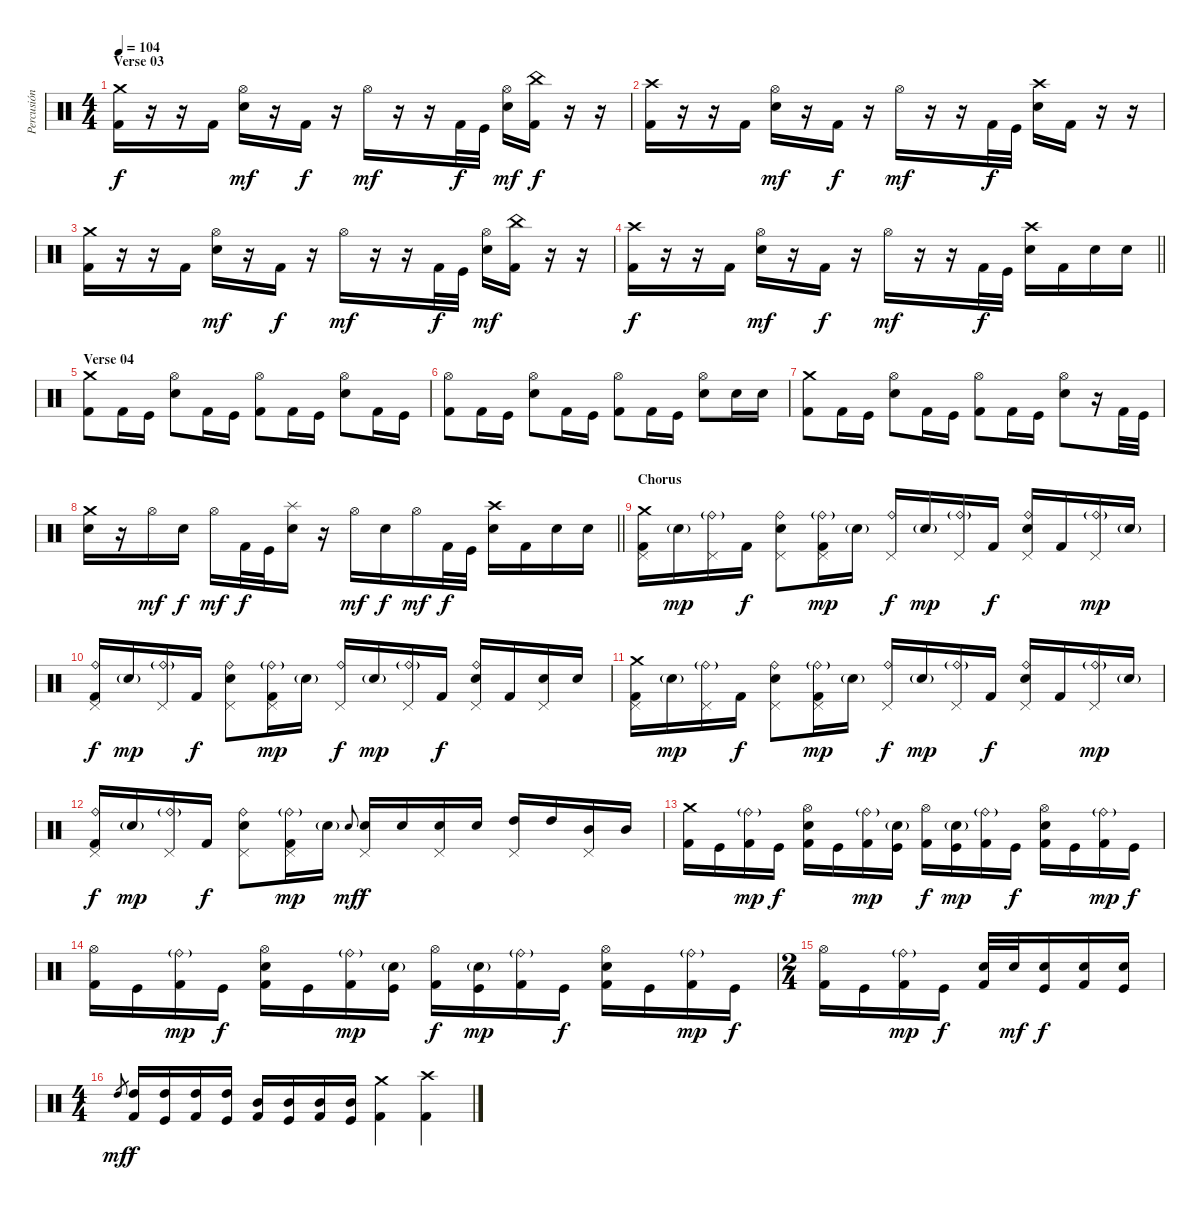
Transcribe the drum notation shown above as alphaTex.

\track ("Percusión" "Percusión") {instrument percussion}
\staff {score}
\articulation defaults
\ts (4 4)
\section ("" "Verse 03")
\tempo 104
\clef neutral
\ks c
("Crash medium (hit)" "Kick (hit) 2").16{dy f} r.16 r.16 "Kick (hit) 2".16 ("Hi-Hat (open)" "Snare (hit) 2").16{dy mf} r.16 "Kick (hit) 2".16{dy f} r.16 "Hi-Hat (open)".16{dy mf} r.16 r.16 "Kick (hit) 2".32{dy f} "Kick (hit)".32 ("Hi-Hat (open)" "Snare (hit) 2").16{dy mf} ("China (hit)" "Kick (hit) 2").16{dy f} r.16 r.16 |
("Crash high (hit)" "Kick (hit) 2").16 r.16 r.16 "Kick (hit) 2".16 ("Hi-Hat (open)" "Snare (hit) 2").16{dy mf} r.16 "Kick (hit) 2".16{dy f} r.16 "Hi-Hat (open)".16{dy mf} r.16 r.16 "Kick (hit) 2".32{dy f} "Kick (hit)".32 ("Crash high (hit)" "Snare (hit) 2").16 "Kick (hit) 2".16 r.16 r.16 |
("Crash medium (hit)" "Kick (hit) 2").16 r.16 r.16 "Kick (hit) 2".16 ("Hi-Hat (open)" "Snare (hit) 2").16{dy mf} r.16 "Kick (hit) 2".16{dy f} r.16 "Hi-Hat (open)".16{dy mf} r.16 r.16 "Kick (hit) 2".32{dy f} "Kick (hit)".32 ("Hi-Hat (open)" "Snare (hit) 2").16{dy mf} ("China (hit)" "Kick (hit) 2").16 r.16 r.16 |
\barLineRight lightlight
("Crash high (hit)" "Kick (hit) 2").16{dy f} r.16 r.16 "Kick (hit) 2".16 ("Hi-Hat (open)" "Snare (hit) 2").16{dy mf} r.16 "Kick (hit) 2".16{dy f} r.16 "Hi-Hat (open)".16{dy mf} r.16 r.16 "Kick (hit) 2".32{dy f} "Kick (hit)".32 ("Crash high (hit)" "Snare (hit) 2").16 "Kick (hit) 2".16 "Snare (hit) 2".16 "Snare (hit) 2".16 |
\section ("" "Verse 04")
("Crash medium (hit)" "Kick (hit) 2").8 "Kick (hit) 2".16 "Kick (hit)".16 ("Hi-Hat (open)" "Snare (hit) 2").8 "Kick (hit) 2".16 "Kick (hit)".16 ("Hi-Hat (open)" "Kick (hit) 2").8 "Kick (hit) 2".16 "Kick (hit)".16 ("Hi-Hat (open)" "Snare (hit) 2").8 "Kick (hit) 2".16 "Kick (hit)".16 |
("Hi-Hat (open)" "Kick (hit) 2").8 "Kick (hit) 2".16 "Kick (hit)".16 ("Hi-Hat (open)" "Snare (hit) 2").8 "Kick (hit) 2".16 "Kick (hit)".16 ("Hi-Hat (open)" "Kick (hit) 2").8 "Kick (hit) 2".16 "Kick (hit)".16 ("Hi-Hat (open)" "Snare (hit) 2").8 "Snare (hit) 2".16 "Snare (hit) 2".16 |
("Crash medium (hit)" "Kick (hit) 2").8 "Kick (hit) 2".16 "Kick (hit)".16 ("Hi-Hat (open)" "Snare (hit) 2").8 "Kick (hit) 2".16 "Kick (hit)".16 ("Hi-Hat (open)" "Kick (hit) 2").8 "Kick (hit) 2".16 "Kick (hit)".16 ("Hi-Hat (open)" "Snare (hit) 2").8 r.16 "Kick (hit) 2".32 "Kick (hit)".32 |
\barLineRight lightlight
("Crash medium (hit)" "Snare (hit) 2").16 r.16 "Hi-Hat (open)".16{dy mf} "Snare (hit) 2".16{dy f} "Hi-Hat (open)".16{dy mf} "Kick (hit) 2".32{dy f} "Kick (hit)".32 ("Splash (hit)" "Snare (hit) 2").16 r.16 "Hi-Hat (open)".16{dy mf} "Snare (hit) 2".16{dy f} "Hi-Hat (open)".16{dy mf} "Kick (hit) 2".32{dy f} "Kick (hit)".32 ("Crash high (hit)" "Snare (hit) 2").16 "Kick (hit) 2".16 "Snare (hit) 2".16 "Snare (hit) 2".16 |
\section ("" "Chorus")
("Crash medium (hit)" "Pedal Hi-Hat (hit)" "Kick (hit) 2").16 "Snare (hit) 2"{g}.16{dy mp} ("Ride (bell)"{g} "Pedal Hi-Hat (hit)").16 "Kick (hit) 2".16{dy f} ("Ride (bell)" "Pedal Hi-Hat (hit)" "Snare (hit) 2").8 ("Ride (bell)"{g} "Pedal Hi-Hat (hit)" "Kick (hit) 2").16{dy mp} "Snare (hit) 2"{g}.16 ("Ride (bell)" "Pedal Hi-Hat (hit)").16{dy f} "Snare (hit) 2"{g}.16{dy mp} ("Ride (bell)"{g} "Pedal Hi-Hat (hit)").16 "Kick (hit) 2".16{dy f} ("Ride (bell)" "Pedal Hi-Hat (hit)" "Snare (hit) 2").16 "Kick (hit) 2".16 ("Ride (bell)"{g} "Pedal Hi-Hat (hit)").16{dy mp} "Snare (hit) 2"{g}.16 |
("Ride (bell)" "Pedal Hi-Hat (hit)" "Kick (hit) 2").16{dy f} "Snare (hit) 2"{g}.16{dy mp} ("Ride (bell)"{g} "Pedal Hi-Hat (hit)").16 "Kick (hit) 2".16{dy f} ("Ride (bell)" "Pedal Hi-Hat (hit)" "Snare (hit) 2").8 ("Ride (bell)"{g} "Pedal Hi-Hat (hit)" "Kick (hit) 2").16{dy mp} "Snare (hit) 2"{g}.16 ("Ride (bell)" "Pedal Hi-Hat (hit)").16{dy f} "Snare (hit) 2"{g}.16{dy mp} ("Ride (bell)"{g} "Pedal Hi-Hat (hit)").16 "Kick (hit) 2".16{dy f} ("Ride (bell)" "Pedal Hi-Hat (hit)" "Snare (hit) 2").16 "Kick (hit) 2".16 ("Pedal Hi-Hat (hit)" "Snare (hit) 2").16 "Snare (hit) 2".16 |
("Crash medium (hit)" "Pedal Hi-Hat (hit)" "Kick (hit) 2").16 "Snare (hit) 2"{g}.16{dy mp} ("Ride (bell)"{g} "Pedal Hi-Hat (hit)").16 "Kick (hit) 2".16{dy f} ("Ride (bell)" "Pedal Hi-Hat (hit)" "Snare (hit) 2").8 ("Ride (bell)"{g} "Pedal Hi-Hat (hit)" "Kick (hit) 2").16{dy mp} "Snare (hit) 2"{g}.16 ("Ride (bell)" "Pedal Hi-Hat (hit)").16{dy f} "Snare (hit) 2"{g}.16{dy mp} ("Ride (bell)"{g} "Pedal Hi-Hat (hit)").16 "Kick (hit) 2".16{dy f} ("Ride (bell)" "Pedal Hi-Hat (hit)" "Snare (hit) 2").16 "Kick (hit) 2".16 ("Ride (bell)"{g} "Pedal Hi-Hat (hit)").16{dy mp} "Snare (hit) 2"{g}.16 |
("Ride (bell)" "Pedal Hi-Hat (hit)" "Kick (hit) 2").16{dy f} "Snare (hit) 2"{g}.16{dy mp} ("Ride (bell)"{g} "Pedal Hi-Hat (hit)").16 "Kick (hit) 2".16{dy f} ("Ride (bell)" "Pedal Hi-Hat (hit)" "Snare (hit) 2").8 ("Ride (bell)"{g} "Pedal Hi-Hat (hit)" "Kick (hit) 2").16{dy mp} "Snare (hit) 2"{g}.16 "Snare (hit) 2".8{gr onbeat dy mf} ("Pedal Hi-Hat (hit)" "Snare (hit) 2").16{dy f} "Snare (hit) 2".16 ("Pedal Hi-Hat (hit)" "Snare (hit) 2").16 "Snare (hit) 2".16 ("Pedal Hi-Hat (hit)" "High Tom (hit)").16 "High Tom (hit)".16 ("Pedal Hi-Hat (hit)" "Mid Tom (hit)").16 "Mid Tom (hit)".16 |
("Crash medium (hit)" "Kick (hit) 2").16 "Kick (hit)".16 ("Ride (bell)"{g} "Kick (hit) 2").16{dy mp} "Kick (hit)".16{dy f} ("Hi-Hat (open)" "Snare (hit) 2" "Kick (hit) 2").16 "Kick (hit)".16 ("Ride (bell)"{g} "Kick (hit) 2").16{dy mp} ("Snare (hit) 2"{g} "Kick (hit)").16 ("Hi-Hat (open)" "Kick (hit) 2").16{dy f} ("Snare (hit) 2"{g} "Kick (hit)").16{dy mp} ("Ride (bell)"{g} "Kick (hit) 2").16 "Kick (hit)".16{dy f} ("Hi-Hat (open)" "Snare (hit) 2" "Kick (hit) 2").16 "Kick (hit)".16 ("Ride (bell)"{g} "Kick (hit) 2").16{dy mp} "Kick (hit)".16{dy f} |
("Hi-Hat (open)" "Kick (hit) 2").16 "Kick (hit)".16 ("Ride (bell)"{g} "Kick (hit) 2").16{dy mp} "Kick (hit)".16{dy f} ("Hi-Hat (open)" "Snare (hit) 2" "Kick (hit) 2").16 "Kick (hit)".16 ("Ride (bell)"{g} "Kick (hit) 2").16{dy mp} ("Snare (hit) 2"{g} "Kick (hit)").16 ("Hi-Hat (open)" "Kick (hit) 2").16{dy f} ("Snare (hit) 2"{g} "Kick (hit)").16{dy mp} ("Ride (bell)"{g} "Kick (hit) 2").16 "Kick (hit)".16{dy f} ("Hi-Hat (open)" "Snare (hit) 2" "Kick (hit) 2").16 "Kick (hit)".16 ("Ride (bell)"{g} "Kick (hit) 2").16{dy mp} "Kick (hit)".16{dy f} |
\ts (2 4)
("Hi-Hat (open)" "Kick (hit) 2").16 "Kick (hit)".16 ("Ride (bell)"{g} "Kick (hit) 2").16{dy mp} "Kick (hit)".16{dy f} ("Snare (hit) 2" "Kick (hit) 2").32 "Snare (hit) 2".32{dy mf} ("Snare (hit) 2" "Kick (hit)").16{dy f} ("Snare (hit) 2" "Kick (hit) 2").16 ("Snare (hit) 2" "Kick (hit)").16 |
\ts (4 4)
"High Tom (hit)".8{gr dy mf} ("High Tom (hit)" "Kick (hit) 2").16{dy f} ("High Tom (hit)" "Kick (hit)").16 ("High Tom (hit)" "Kick (hit) 2").16 ("High Tom (hit)" "Kick (hit)").16 ("Mid Tom (hit)" "Kick (hit) 2").16 ("Mid Tom (hit)" "Kick (hit)").16 ("Mid Tom (hit)" "Kick (hit) 2").16 ("Mid Tom (hit)" "Kick (hit)").16 ("Crash medium (hit)" "Kick (hit) 2").4 ("Crash high (hit)" "Kick (hit) 2").4
